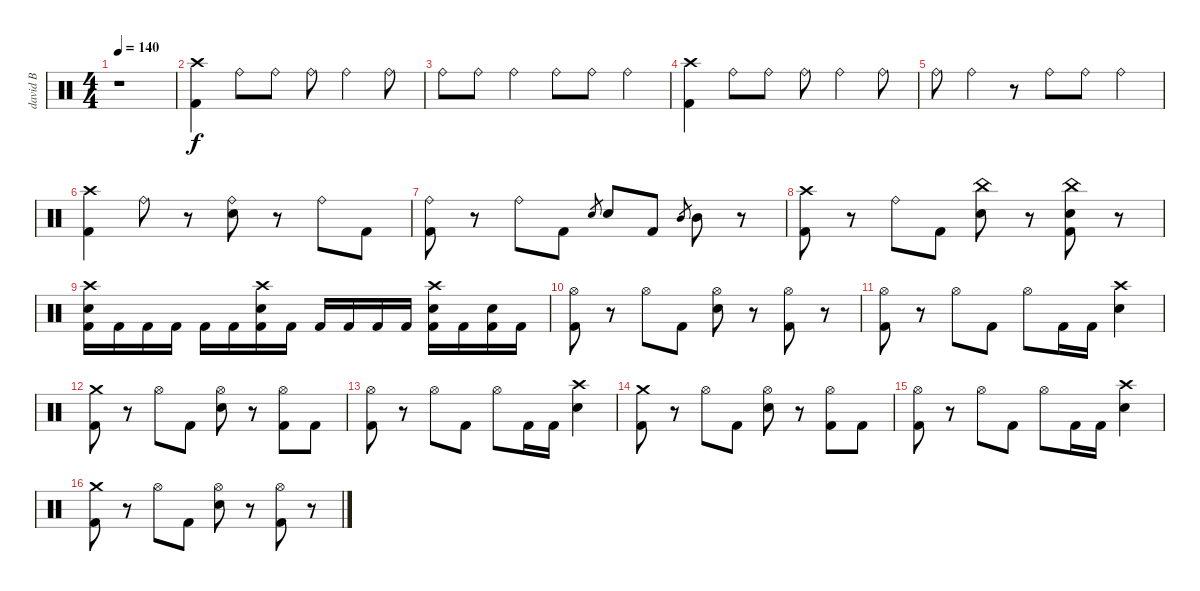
\track ("david B" "david B") {instrument percussion}
\staff {score}
\articulation defaults
\ts (4 4)
\tempo 140
\clef neutral
\ks c
r.1{dy f} |
("Crash high (hit)" "Kick (hit) 2").4 "Ride (bell)".8 "Ride (bell)".8 "Ride (bell)".8 "Ride (bell)".4 "Ride (bell)".8 |
"Ride (bell)".8 "Ride (bell)".8 "Ride (bell)".4 "Ride (bell)".8 "Ride (bell)".8 "Ride (bell)".4 |
("Crash high (hit)" "Kick (hit) 2").4 "Ride (bell)".8 "Ride (bell)".8 "Ride (bell)".8 "Ride (bell)".4 "Ride (bell)".8 |
"Ride (bell)".8 "Ride (bell)".4 r.8 "Ride (bell)".8 "Ride (bell)".8 "Ride (bell)".4 |
("Crash high (hit)" "Kick (hit) 2").4 "Ride (bell)".8 r.8 ("Ride (bell)" "Electric Snare (hit)").8 r.8 "Ride (bell)".8 "Kick (hit) 2".8 |
("Ride (bell)" "Kick (hit) 2").8 r.8 "Ride (bell)".8 "Kick (hit) 2".8 "Electric Snare (hit)".8{gr} "Electric Snare (hit)".8 "Kick (hit) 2".8 "Mid Tom (hit)".8{gr} "Mid Tom (hit)".8 r.8 |
("Crash high (hit)" "Kick (hit) 2").8 r.8 "Ride (bell)".8 "Kick (hit) 2".8 ("China (hit)" "Electric Snare (hit)").8 r.8 ("China (hit)" "Electric Snare (hit)" "Kick (hit) 2").8 r.8 |
("Crash high (hit)" "Electric Snare (hit)" "Kick (hit) 2").16 "Kick (hit) 2".16 "Kick (hit) 2".16 "Kick (hit) 2".16 "Kick (hit) 2".16 "Kick (hit) 2".16 ("Crash high (hit)" "Electric Snare (hit)" "Kick (hit) 2").16 "Kick (hit) 2".16 "Kick (hit) 2".16 "Kick (hit) 2".16 "Kick (hit) 2".16 "Kick (hit) 2".16 ("Crash high (hit)" "Electric Snare (hit)" "Kick (hit) 2").16 "Kick (hit) 2".16 ("Electric Snare (hit)" "Kick (hit) 2").16 "Kick (hit) 2".16 |
("Hi-Hat (open)" "Kick (hit) 2").8 r.8 "Hi-Hat (open)".8 "Kick (hit) 2".8 ("Hi-Hat (open)" "Electric Snare (hit)").8 r.8 ("Hi-Hat (open)" "Kick (hit) 2").8 r.8 |
("Hi-Hat (open)" "Kick (hit) 2").8 r.8 "Hi-Hat (open)".8 "Kick (hit) 2".8 "Hi-Hat (open)".8 "Kick (hit) 2".16 "Kick (hit) 2".16 ("Crash high (hit)" "Electric Snare (hit)").4 |
("Crash medium (hit)" "Kick (hit) 2").8 r.8 "Hi-Hat (open)".8 "Kick (hit) 2".8 ("Hi-Hat (open)" "Electric Snare (hit)").8 r.8 ("Hi-Hat (open)" "Kick (hit) 2").8 "Kick (hit) 2".8 |
("Hi-Hat (open)" "Kick (hit) 2").8 r.8 "Hi-Hat (open)".8 "Kick (hit) 2".8 "Hi-Hat (open)".8 "Kick (hit) 2".16 "Kick (hit) 2".16 ("Crash high (hit)" "Electric Snare (hit)").4 |
("Crash medium (hit)" "Kick (hit) 2").8 r.8 "Hi-Hat (open)".8 "Kick (hit) 2".8 ("Hi-Hat (open)" "Electric Snare (hit)").8 r.8 ("Hi-Hat (open)" "Kick (hit) 2").8 "Kick (hit) 2".8 |
("Hi-Hat (open)" "Kick (hit) 2").8 r.8 "Hi-Hat (open)".8 "Kick (hit) 2".8 "Hi-Hat (open)".8 "Kick (hit) 2".16 "Kick (hit) 2".16 ("Crash high (hit)" "Electric Snare (hit)").4 |
("Crash medium (hit)" "Kick (hit) 2").8 r.8 "Hi-Hat (open)".8 "Kick (hit) 2".8 ("Hi-Hat (open)" "Electric Snare (hit)").8 r.8 ("Hi-Hat (open)" "Kick (hit) 2").8 r.8
